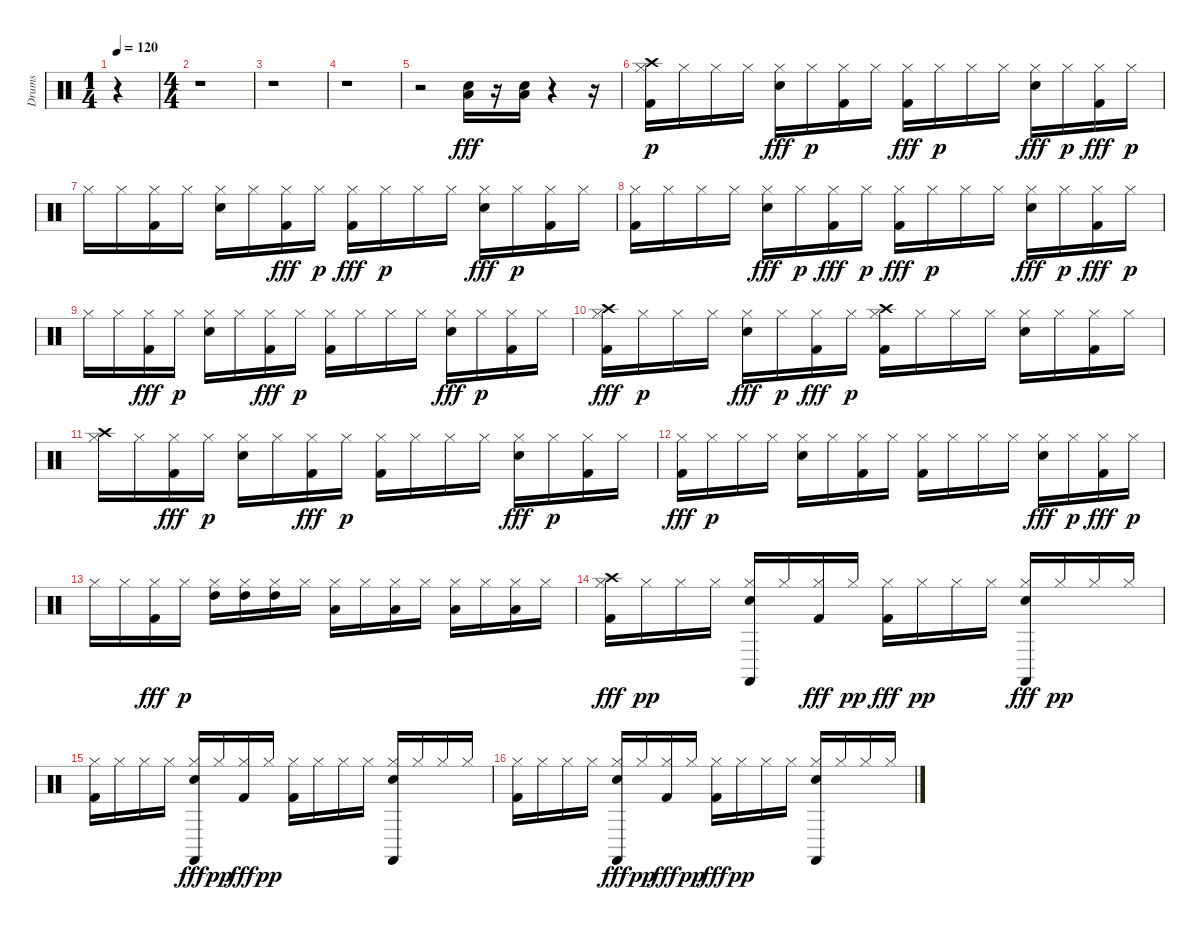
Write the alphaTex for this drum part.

\track ("Drums" "Drums") {instrument percussion}
\staff {score}
\articulation defaults
\ts (1 4)
\tempo 120
\clef neutral
\ks c
r.4{dy fff} |
\ts (4 4)
r.1 |
r.1 |
r.1 |
r.2 ("Snare (hit) 2" "Low Floor Tom (hit)").16 r.16 ("Low Floor Tom (hit)" "Snare (hit) 2").16 r.4 r.16 |
("Crash high (hit)" "Kick (hit) 2" "Hi-Hat (closed)").16{dy p} "Hi-Hat (closed)".16 "Hi-Hat (closed)".16 "Hi-Hat (closed)".16 ("Hi-Hat (closed)" "Snare (hit) 2").16{dy fff} "Hi-Hat (closed)".16{dy p} ("Kick (hit) 2" "Hi-Hat (closed)").16 "Hi-Hat (closed)".16 ("Hi-Hat (closed)" "Kick (hit) 2").16{dy fff} "Hi-Hat (closed)".16{dy p} "Hi-Hat (closed)".16 "Hi-Hat (closed)".16 ("Hi-Hat (closed)" "Snare (hit) 2").16{dy fff} "Hi-Hat (closed)".16{dy p} ("Hi-Hat (closed)" "Kick (hit) 2").16{dy fff} "Hi-Hat (closed)".16{dy p} |
"Hi-Hat (closed)".16 "Hi-Hat (closed)".16 ("Kick (hit) 2" "Hi-Hat (closed)").16 "Hi-Hat (closed)".16 ("Snare (hit) 2" "Hi-Hat (closed)").16 "Hi-Hat (closed)".16 ("Hi-Hat (closed)" "Kick (hit) 2").16{dy fff} "Hi-Hat (closed)".16{dy p} ("Hi-Hat (closed)" "Kick (hit) 2").16{dy fff} "Hi-Hat (closed)".16{dy p} "Hi-Hat (closed)".16 "Hi-Hat (closed)".16 ("Hi-Hat (closed)" "Snare (hit) 2").16{dy fff} "Hi-Hat (closed)".16{dy p} ("Kick (hit) 2" "Hi-Hat (closed)").16 "Hi-Hat (closed)".16 |
("Kick (hit) 2" "Hi-Hat (closed)").16 "Hi-Hat (closed)".16 "Hi-Hat (closed)".16 "Hi-Hat (closed)".16 ("Hi-Hat (closed)" "Snare (hit) 2").16{dy fff} "Hi-Hat (closed)".16{dy p} ("Hi-Hat (closed)" "Kick (hit) 2").16{dy fff} "Hi-Hat (closed)".16{dy p} ("Hi-Hat (closed)" "Kick (hit) 2").16{dy fff} "Hi-Hat (closed)".16{dy p} "Hi-Hat (closed)".16 "Hi-Hat (closed)".16 ("Hi-Hat (closed)" "Snare (hit) 2").16{dy fff} "Hi-Hat (closed)".16{dy p} ("Hi-Hat (closed)" "Kick (hit) 2").16{dy fff} "Hi-Hat (closed)".16{dy p} |
"Hi-Hat (closed)".16 "Hi-Hat (closed)".16 ("Hi-Hat (closed)" "Kick (hit) 2").16{dy fff} "Hi-Hat (closed)".16{dy p} ("Snare (hit) 2" "Hi-Hat (closed)").16 "Hi-Hat (closed)".16 ("Hi-Hat (closed)" "Kick (hit) 2").16{dy fff} "Hi-Hat (closed)".16{dy p} ("Kick (hit) 2" "Hi-Hat (closed)").16 "Hi-Hat (closed)".16 "Hi-Hat (closed)".16 "Hi-Hat (closed)".16 ("Hi-Hat (closed)" "Snare (hit) 2").16{dy fff} "Hi-Hat (closed)".16{dy p} ("Kick (hit) 2" "Hi-Hat (closed)").16 "Hi-Hat (closed)".16 |
("Hi-Hat (closed)" "Crash high (hit)" "Kick (hit) 2").16{dy fff} "Hi-Hat (closed)".16{dy p} "Hi-Hat (closed)".16 "Hi-Hat (closed)".16 ("Hi-Hat (closed)" "Snare (hit) 2").16{dy fff} "Hi-Hat (closed)".16{dy p} ("Hi-Hat (closed)" "Kick (hit) 2").16{dy fff} "Hi-Hat (closed)".16{dy p} ("Kick (hit) 2" "Hi-Hat (closed)" "Crash high (hit)").16 "Hi-Hat (closed)".16 "Hi-Hat (closed)".16 "Hi-Hat (closed)".16 ("Snare (hit) 2" "Hi-Hat (closed)").16 "Hi-Hat (closed)".16 ("Kick (hit) 2" "Hi-Hat (closed)").16 "Hi-Hat (closed)".16 |
("Hi-Hat (closed)" "Crash high (hit)").16 "Hi-Hat (closed)".16 ("Hi-Hat (closed)" "Kick (hit) 2").16{dy fff} "Hi-Hat (closed)".16{dy p} ("Snare (hit) 2" "Hi-Hat (closed)").16 "Hi-Hat (closed)".16 ("Hi-Hat (closed)" "Kick (hit) 2").16{dy fff} "Hi-Hat (closed)".16{dy p} ("Kick (hit) 2" "Hi-Hat (closed)").16 "Hi-Hat (closed)".16 "Hi-Hat (closed)".16 "Hi-Hat (closed)".16 ("Hi-Hat (closed)" "Snare (hit) 2").16{dy fff} "Hi-Hat (closed)".16{dy p} ("Kick (hit) 2" "Hi-Hat (closed)").16 "Hi-Hat (closed)".16 |
("Hi-Hat (closed)" "Kick (hit) 2").16{dy fff} "Hi-Hat (closed)".16{dy p} "Hi-Hat (closed)".16 "Hi-Hat (closed)".16 ("Snare (hit) 2" "Hi-Hat (closed)").16 "Hi-Hat (closed)".16 ("Kick (hit) 2" "Hi-Hat (closed)").16 "Hi-Hat (closed)".16 ("Kick (hit) 2" "Hi-Hat (closed)").16 "Hi-Hat (closed)".16 "Hi-Hat (closed)".16 "Hi-Hat (closed)".16 ("Hi-Hat (closed)" "Snare (hit) 2").16{dy fff} "Hi-Hat (closed)".16{dy p} ("Hi-Hat (closed)" "Kick (hit) 2").16{dy fff} "Hi-Hat (closed)".16{dy p} |
"Hi-Hat (closed)".16 "Hi-Hat (closed)".16 ("Hi-Hat (closed)" "Kick (hit) 2").16{dy fff} "Hi-Hat (closed)".16{dy p} ("High Tom (hit)" "Hi-Hat (closed)").16 ("Hi-Hat (closed)" "High Tom (hit)").16 ("High Tom (hit)" "Hi-Hat (closed)").16 "Hi-Hat (closed)".16 ("Low Tom (hit)" "Hi-Hat (closed)").16 "Hi-Hat (closed)".16 ("Hi-Hat (closed)" "Low Tom (hit)").16 "Hi-Hat (closed)".16 ("Low Floor Tom (hit)" "Hi-Hat (closed)").16 "Hi-Hat (closed)".16 ("Hi-Hat (closed)" "Low Floor Tom (hit)").16 "Hi-Hat (closed)".16 |
("Crash high (hit)" "Hi-Hat (closed)" "Kick (hit) 2").16{dy fff} "Hi-Hat (closed)".16{dy pp} "Hi-Hat (closed)".16 "Hi-Hat (closed)".16 ("Castanets (hit)" "Snare (hit) 2" "Hi-Hat (closed)").16 "Hi-Hat (closed)".16 ("Hi-Hat (closed)" "Kick (hit) 2").16{dy fff} "Hi-Hat (closed)".16{dy pp} ("Hi-Hat (closed)" "Kick (hit) 2").16{dy fff} "Hi-Hat (closed)".16{dy pp} "Hi-Hat (closed)".16 "Hi-Hat (closed)".16 ("Castanets (hit)" "Hi-Hat (closed)" "Snare (hit) 2").16{dy fff} "Hi-Hat (closed)".16{dy pp} "Hi-Hat (closed)".16 "Hi-Hat (closed)".16 |
("Kick (hit) 2" "Hi-Hat (closed)").16 "Hi-Hat (closed)".16 "Hi-Hat (closed)".16 "Hi-Hat (closed)".16 ("Hi-Hat (closed)" "Castanets (hit)" "Snare (hit) 2").16{dy fff} "Hi-Hat (closed)".16{dy pp} ("Hi-Hat (closed)" "Kick (hit) 2").16{dy fff} "Hi-Hat (closed)".16{dy pp} ("Kick (hit) 2" "Hi-Hat (closed)").16 "Hi-Hat (closed)".16 "Hi-Hat (closed)".16 "Hi-Hat (closed)".16 ("Castanets (hit)" "Snare (hit) 2" "Hi-Hat (closed)").16 "Hi-Hat (closed)".16 "Hi-Hat (closed)".16 "Hi-Hat (closed)".16 |
("Kick (hit) 2" "Hi-Hat (closed)").16 "Hi-Hat (closed)".16 "Hi-Hat (closed)".16 "Hi-Hat (closed)".16 ("Snare (hit) 2" "Hi-Hat (closed)" "Castanets (hit)").16{dy fff} "Hi-Hat (closed)".16{dy pp} ("Hi-Hat (closed)" "Kick (hit) 2").16{dy fff} "Hi-Hat (closed)".16{dy pp} ("Hi-Hat (closed)" "Kick (hit) 2").16{dy fff} "Hi-Hat (closed)".16{dy pp} "Hi-Hat (closed)".16 "Hi-Hat (closed)".16 ("Snare (hit) 2" "Castanets (hit)" "Hi-Hat (closed)").16 "Hi-Hat (closed)".16 "Hi-Hat (closed)".16 "Hi-Hat (closed)".16
